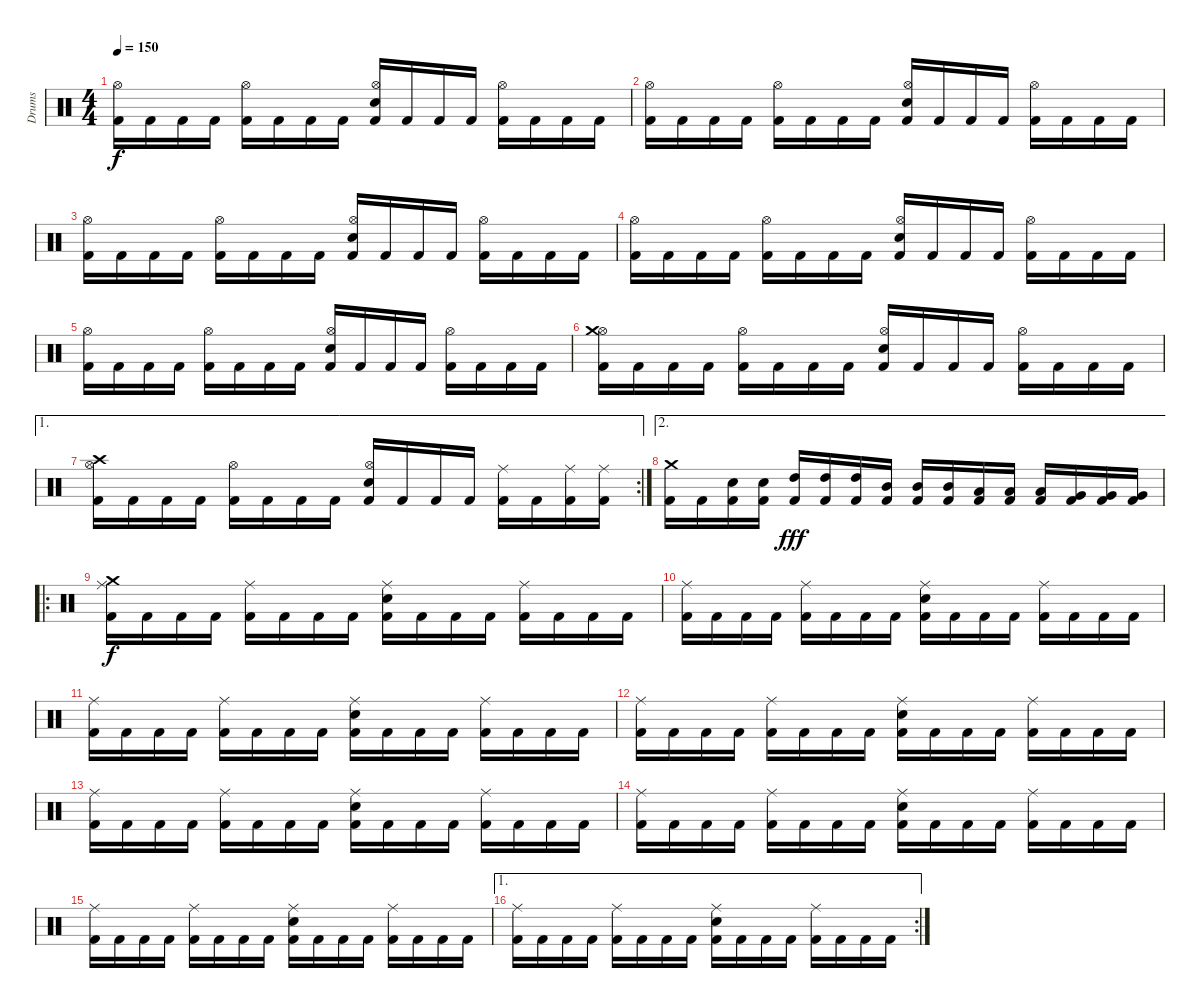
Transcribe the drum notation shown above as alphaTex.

\track ("Drums" "Drums") {instrument percussion}
\staff {score}
\articulation defaults
\ts (4 4)
\tempo 150
\clef neutral
\ks c
("Kick (hit) 2" "Hi-Hat (open)").16{dy f} "Kick (hit) 2".16 "Kick (hit) 2".16 "Kick (hit) 2".16 ("Kick (hit) 2" "Hi-Hat (open)").16 "Kick (hit) 2".16 "Kick (hit) 2".16 "Kick (hit) 2".16 ("Kick (hit) 2" "Electric Snare (hit)" "Hi-Hat (open)").16 "Kick (hit) 2".16 "Kick (hit) 2".16 "Kick (hit) 2".16 ("Kick (hit) 2" "Hi-Hat (open)").16 "Kick (hit) 2".16 "Kick (hit) 2".16 "Kick (hit) 2".16 |
("Kick (hit) 2" "Hi-Hat (open)").16 "Kick (hit) 2".16 "Kick (hit) 2".16 "Kick (hit) 2".16 ("Kick (hit) 2" "Hi-Hat (open)").16 "Kick (hit) 2".16 "Kick (hit) 2".16 "Kick (hit) 2".16 ("Kick (hit) 2" "Electric Snare (hit)" "Hi-Hat (open)").16 "Kick (hit) 2".16 "Kick (hit) 2".16 "Kick (hit) 2".16 ("Kick (hit) 2" "Hi-Hat (open)").16 "Kick (hit) 2".16 "Kick (hit) 2".16 "Kick (hit) 2".16 |
("Kick (hit) 2" "Hi-Hat (open)").16 "Kick (hit) 2".16 "Kick (hit) 2".16 "Kick (hit) 2".16 ("Kick (hit) 2" "Hi-Hat (open)").16 "Kick (hit) 2".16 "Kick (hit) 2".16 "Kick (hit) 2".16 ("Kick (hit) 2" "Electric Snare (hit)" "Hi-Hat (open)").16 "Kick (hit) 2".16 "Kick (hit) 2".16 "Kick (hit) 2".16 ("Kick (hit) 2" "Hi-Hat (open)").16 "Kick (hit) 2".16 "Kick (hit) 2".16 "Kick (hit) 2".16 |
("Kick (hit) 2" "Hi-Hat (open)").16 "Kick (hit) 2".16 "Kick (hit) 2".16 "Kick (hit) 2".16 ("Kick (hit) 2" "Hi-Hat (open)").16 "Kick (hit) 2".16 "Kick (hit) 2".16 "Kick (hit) 2".16 ("Kick (hit) 2" "Electric Snare (hit)" "Hi-Hat (open)").16 "Kick (hit) 2".16 "Kick (hit) 2".16 "Kick (hit) 2".16 ("Kick (hit) 2" "Hi-Hat (open)").16 "Kick (hit) 2".16 "Kick (hit) 2".16 "Kick (hit) 2".16 |
("Kick (hit) 2" "Hi-Hat (open)").16 "Kick (hit) 2".16 "Kick (hit) 2".16 "Kick (hit) 2".16 ("Kick (hit) 2" "Hi-Hat (open)").16 "Kick (hit) 2".16 "Kick (hit) 2".16 "Kick (hit) 2".16 ("Kick (hit) 2" "Electric Snare (hit)" "Hi-Hat (open)").16 "Kick (hit) 2".16 "Kick (hit) 2".16 "Kick (hit) 2".16 ("Kick (hit) 2" "Hi-Hat (open)").16 "Kick (hit) 2".16 "Kick (hit) 2".16 "Kick (hit) 2".16 |
("Kick (hit) 2" "Hi-Hat (open)" "Crash medium (hit)").16 "Kick (hit) 2".16 "Kick (hit) 2".16 "Kick (hit) 2".16 ("Kick (hit) 2" "Hi-Hat (open)").16 "Kick (hit) 2".16 "Kick (hit) 2".16 "Kick (hit) 2".16 ("Kick (hit) 2" "Electric Snare (hit)" "Hi-Hat (open)").16 "Kick (hit) 2".16 "Kick (hit) 2".16 "Kick (hit) 2".16 ("Kick (hit) 2" "Hi-Hat (open)").16 "Kick (hit) 2".16 "Kick (hit) 2".16 "Kick (hit) 2".16 |
\ae 1
\rc 2
("Kick (hit) 2" "Hi-Hat (open)" "Crash high (hit)").16 "Kick (hit) 2".16 "Kick (hit) 2".16 "Kick (hit) 2".16 ("Kick (hit) 2" "Hi-Hat (open)").16 "Kick (hit) 2".16 "Kick (hit) 2".16 "Kick (hit) 2".16 ("Kick (hit) 2" "Electric Snare (hit)" "Hi-Hat (open)").16 "Kick (hit) 2".16 "Kick (hit) 2".16 "Kick (hit) 2".16 ("Kick (hit) 2" "Ride (middle)").16 "Kick (hit) 2".16 ("Kick (hit) 2" "Ride (middle)").16 ("Kick (hit) 2" "Ride (middle)").16 |
\ae 2
("Kick (hit) 2" "Crash medium (hit)").16 "Kick (hit) 2".16 ("Kick (hit) 2" "Electric Snare (hit)").16 ("Kick (hit) 2" "Electric Snare (hit)").16 ("Kick (hit) 2" "High Tom (hit)").16{dy fff} ("Kick (hit) 2" "High Tom (hit)").16 ("Kick (hit) 2" "High Tom (hit)").16 ("Kick (hit) 2" "Mid Tom (hit)").16 ("Kick (hit) 2" "Mid Tom (hit)").16 ("Kick (hit) 2" "Mid Tom (hit)").16 ("Kick (hit) 2" "Low Tom (hit)").16 ("Kick (hit) 2" "Low Tom (hit)").16 ("Kick (hit) 2" "Low Tom (hit)").16 ("Kick (hit) 2" "Very Low Tom (hit)").16 ("Kick (hit) 2" "Very Low Tom (hit)").16 ("Kick (hit) 2" "Very Low Tom (hit)").16 |
\ro
("Kick (hit) 2" "Ride (middle)" "Crash medium (hit)").16{dy f} "Kick (hit) 2".16 "Kick (hit) 2".16 "Kick (hit) 2".16 ("Kick (hit) 2" "Ride (middle)").16 "Kick (hit) 2".16 "Kick (hit) 2".16 "Kick (hit) 2".16 ("Kick (hit) 2" "Electric Snare (hit)" "Ride (middle)").16 "Kick (hit) 2".16 "Kick (hit) 2".16 "Kick (hit) 2".16 ("Kick (hit) 2" "Ride (middle)").16 "Kick (hit) 2".16 "Kick (hit) 2".16 "Kick (hit) 2".16 |
("Kick (hit) 2" "Ride (middle)").16 "Kick (hit) 2".16 "Kick (hit) 2".16 "Kick (hit) 2".16 ("Kick (hit) 2" "Ride (middle)").16 "Kick (hit) 2".16 "Kick (hit) 2".16 "Kick (hit) 2".16 ("Kick (hit) 2" "Electric Snare (hit)" "Ride (middle)").16 "Kick (hit) 2".16 "Kick (hit) 2".16 "Kick (hit) 2".16 ("Kick (hit) 2" "Ride (middle)").16 "Kick (hit) 2".16 "Kick (hit) 2".16 "Kick (hit) 2".16 |
("Kick (hit) 2" "Ride (middle)").16 "Kick (hit) 2".16 "Kick (hit) 2".16 "Kick (hit) 2".16 ("Kick (hit) 2" "Ride (middle)").16 "Kick (hit) 2".16 "Kick (hit) 2".16 "Kick (hit) 2".16 ("Kick (hit) 2" "Electric Snare (hit)" "Ride (middle)").16 "Kick (hit) 2".16 "Kick (hit) 2".16 "Kick (hit) 2".16 ("Kick (hit) 2" "Ride (middle)").16 "Kick (hit) 2".16 "Kick (hit) 2".16 "Kick (hit) 2".16 |
("Kick (hit) 2" "Ride (middle)").16 "Kick (hit) 2".16 "Kick (hit) 2".16 "Kick (hit) 2".16 ("Kick (hit) 2" "Ride (middle)").16 "Kick (hit) 2".16 "Kick (hit) 2".16 "Kick (hit) 2".16 ("Kick (hit) 2" "Electric Snare (hit)" "Ride (middle)").16 "Kick (hit) 2".16 "Kick (hit) 2".16 "Kick (hit) 2".16 ("Kick (hit) 2" "Ride (middle)").16 "Kick (hit) 2".16 "Kick (hit) 2".16 "Kick (hit) 2".16 |
("Kick (hit) 2" "Ride (middle)").16 "Kick (hit) 2".16 "Kick (hit) 2".16 "Kick (hit) 2".16 ("Kick (hit) 2" "Ride (middle)").16 "Kick (hit) 2".16 "Kick (hit) 2".16 "Kick (hit) 2".16 ("Kick (hit) 2" "Electric Snare (hit)" "Ride (middle)").16 "Kick (hit) 2".16 "Kick (hit) 2".16 "Kick (hit) 2".16 ("Kick (hit) 2" "Ride (middle)").16 "Kick (hit) 2".16 "Kick (hit) 2".16 "Kick (hit) 2".16 |
("Kick (hit) 2" "Ride (middle)").16 "Kick (hit) 2".16 "Kick (hit) 2".16 "Kick (hit) 2".16 ("Kick (hit) 2" "Ride (middle)").16 "Kick (hit) 2".16 "Kick (hit) 2".16 "Kick (hit) 2".16 ("Kick (hit) 2" "Electric Snare (hit)" "Ride (middle)").16 "Kick (hit) 2".16 "Kick (hit) 2".16 "Kick (hit) 2".16 ("Kick (hit) 2" "Ride (middle)").16 "Kick (hit) 2".16 "Kick (hit) 2".16 "Kick (hit) 2".16 |
("Kick (hit) 2" "Ride (middle)").16 "Kick (hit) 2".16 "Kick (hit) 2".16 "Kick (hit) 2".16 ("Kick (hit) 2" "Ride (middle)").16 "Kick (hit) 2".16 "Kick (hit) 2".16 "Kick (hit) 2".16 ("Kick (hit) 2" "Electric Snare (hit)" "Ride (middle)").16 "Kick (hit) 2".16 "Kick (hit) 2".16 "Kick (hit) 2".16 ("Kick (hit) 2" "Ride (middle)").16 "Kick (hit) 2".16 "Kick (hit) 2".16 "Kick (hit) 2".16 |
\ae 1
\rc 2
("Kick (hit) 2" "Ride (middle)").16 "Kick (hit) 2".16 "Kick (hit) 2".16 "Kick (hit) 2".16 ("Kick (hit) 2" "Ride (middle)").16 "Kick (hit) 2".16 "Kick (hit) 2".16 "Kick (hit) 2".16 ("Kick (hit) 2" "Electric Snare (hit)" "Ride (middle)").16 "Kick (hit) 2".16 "Kick (hit) 2".16 "Kick (hit) 2".16 ("Kick (hit) 2" "Ride (middle)").16 "Kick (hit) 2".16 "Kick (hit) 2".16 "Kick (hit) 2".16
